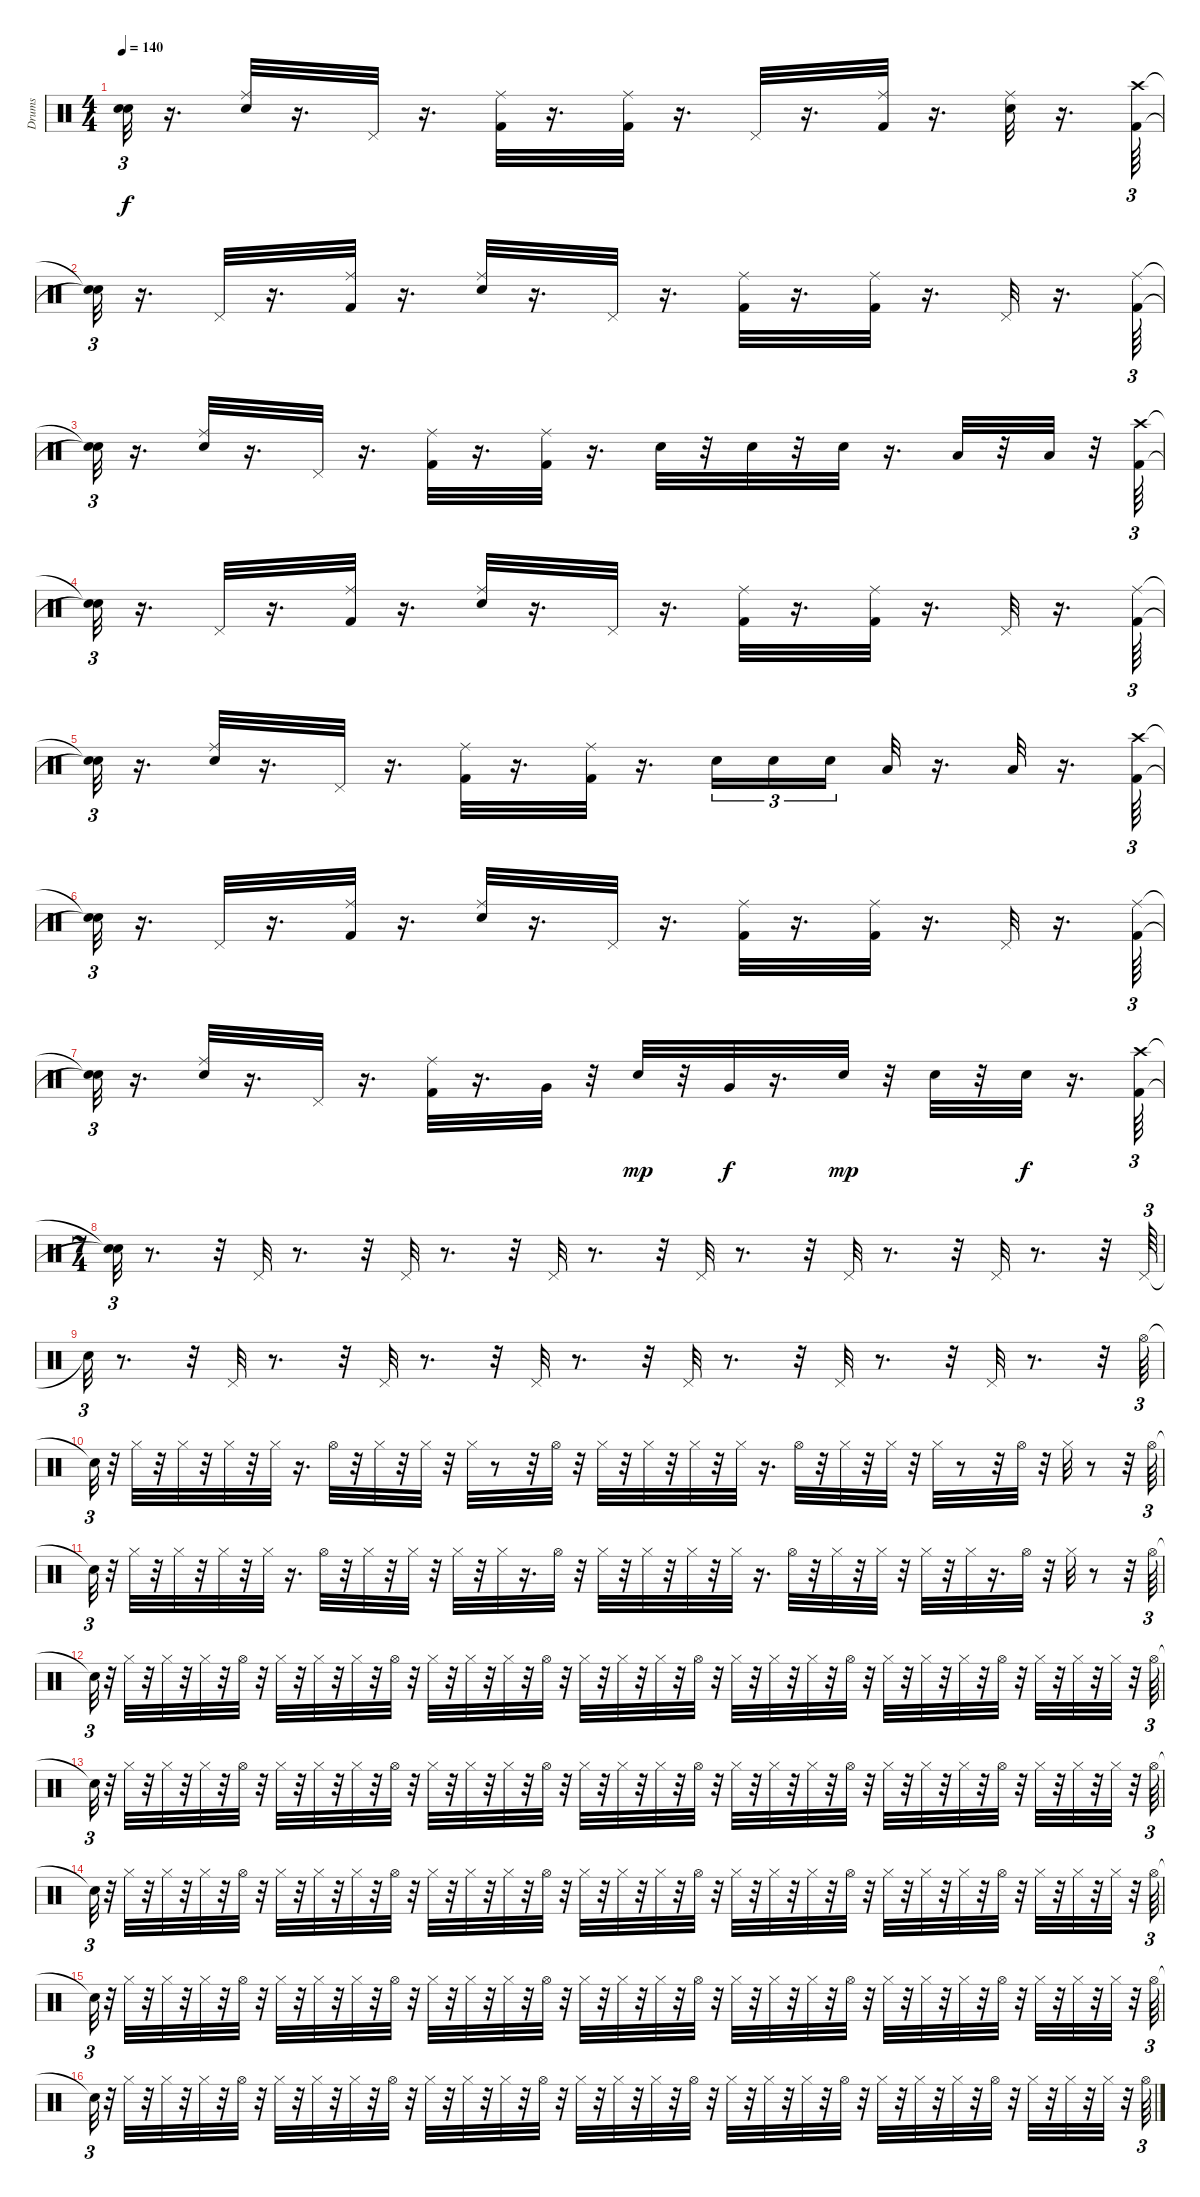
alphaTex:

\track ("Drums" "Drums") {instrument percussion}
\staff {score}
\articulation defaults
\ts (4 4)
\tempo 140
\clef neutral
\ks c
("Snare (hit)"{t} "Snare (hit)"{t}).32{tu (3 2) dy f} r.16{d} ("Ride (middle)" "Snare (hit) 2").32 r.16{d} "Pedal Hi-Hat (hit)".32 r.16{d} ("Ride (middle)" "Kick (hit) 2").32 r.16{d} ("Kick (hit) 2" "Ride (middle)").32 r.16{d} "Pedal Hi-Hat (hit)".32 r.16{d} ("Ride (middle)" "Kick (hit) 2").32 r.16{d} ("Ride (middle)" "Snare (hit) 2").32 r.16{d} ("Crash high (hit)" "Kick (hit) 2").64{tu (3 2)} |
("Snare (hit)"{t} "Snare (hit)"{t}).32{tu (3 2)} r.16{d} "Pedal Hi-Hat (hit)".32 r.16{d} ("Ride (middle)" "Kick (hit) 2").32 r.16{d} ("Ride (middle)" "Snare (hit) 2").32 r.16{d} "Pedal Hi-Hat (hit)".32 r.16{d} ("Ride (middle)" "Kick (hit) 2").32 r.16{d} ("Kick (hit) 2" "Ride (middle)").32 r.16{d} "Pedal Hi-Hat (hit)".32 r.16{d} ("Kick (hit) 2" "Ride (middle)").64{tu (3 2)} |
("Snare (hit)"{t} "Snare (hit)"{t}).32{tu (3 2)} r.16{d} ("Ride (middle)" "Snare (hit) 2").32 r.16{d} "Pedal Hi-Hat (hit)".32 r.16{d} ("Ride (middle)" "Kick (hit) 2").32 r.16{d} ("Ride (middle)" "Kick (hit) 2").32 r.16{d} "Snare (hit) 2".32 r.32 "Snare (hit) 2".32 r.32 "Snare (hit) 2".32 r.16{d} "Low Tom (hit)".32 r.32 "Low Tom (hit)".32 r.32 ("Crash high (hit)" "Kick (hit) 2").64{tu (3 2)} |
("Snare (hit)"{t} "Snare (hit)"{t}).32{tu (3 2)} r.16{d} "Pedal Hi-Hat (hit)".32 r.16{d} ("Kick (hit) 2" "Ride (middle)").32 r.16{d} ("Ride (middle)" "Snare (hit) 2").32 r.16{d} "Pedal Hi-Hat (hit)".32 r.16{d} ("Ride (middle)" "Kick (hit) 2").32 r.16{d} ("Ride (middle)" "Kick (hit) 2").32 r.16{d} "Pedal Hi-Hat (hit)".32 r.16{d} ("Ride (middle)" "Kick (hit) 2").64{tu (3 2)} |
("Snare (hit)"{t} "Snare (hit)"{t}).32{tu (3 2)} r.16{d} ("Ride (middle)" "Snare (hit) 2").32 r.16{d} "Pedal Hi-Hat (hit)".32 r.16{d} ("Ride (middle)" "Kick (hit) 2").32 r.16{d} ("Kick (hit) 2" "Ride (middle)").32 r.16{d} "Snare (hit) 2".16{tu (3 2)} "Snare (hit) 2".16{tu (3 2)} "Snare (hit) 2".16{tu (3 2) beam splitsecondary} "Low Tom (hit)".32 r.16{d} "Low Tom (hit)".32 r.16{d} ("Crash high (hit)" "Kick (hit) 2").64{tu (3 2)} |
("Snare (hit)"{t} "Snare (hit)"{t}).32{tu (3 2)} r.16{d} "Pedal Hi-Hat (hit)".32 r.16{d} ("Kick (hit) 2" "Ride (middle)").32 r.16{d} ("Ride (middle)" "Snare (hit) 2").32 r.16{d} "Pedal Hi-Hat (hit)".32 r.16{d} ("Ride (middle)" "Kick (hit) 2").32 r.16{d} ("Ride (middle)" "Kick (hit) 2").32 r.16{d} "Pedal Hi-Hat (hit)".32 r.16{d} ("Ride (middle)" "Kick (hit) 2").64{tu (3 2)} |
("Snare (hit)"{t} "Snare (hit)"{t}).32{tu (3 2)} r.16{d} ("Ride (middle)" "Snare (hit) 2").32 r.16{d} "Pedal Hi-Hat (hit)".32 r.16{d} ("Ride (middle)" "Kick (hit) 2").32 r.16{d} "Very Low Tom (hit)".32 r.32 "Snare (hit) 2".32{dy mp} r.32 "Very Low Tom (hit)".32{dy f} r.16{d} "Snare (hit) 2".32{dy mp} r.32 "Snare (hit) 2".32 r.32 "Snare (hit) 2".32{dy f} r.16{d} ("Crash high (hit)" "Kick (hit) 2").64{tu (3 2)} |
\ts (7 4)
("Snare (hit)"{t} "Snare (hit)"{t}).32{tu (3 2)} r.8{d} r.32 "Pedal Hi-Hat (hit)".32 r.8{d} r.32 "Pedal Hi-Hat (hit)".32 r.8{d} r.32 "Pedal Hi-Hat (hit)".32 r.8{d} r.32 "Pedal Hi-Hat (hit)".32 r.8{d} r.32 "Pedal Hi-Hat (hit)".32 r.8{d} r.32 "Pedal Hi-Hat (hit)".32 r.8{d} r.32 "Pedal Hi-Hat (hit)".64{tu (3 2)} |
"Snare (hit)"{t}.32{tu (3 2)} r.8{d} r.32 "Pedal Hi-Hat (hit)".32 r.8{d} r.32 "Pedal Hi-Hat (hit)".32 r.8{d} r.32 "Pedal Hi-Hat (hit)".32 r.8{d} r.32 "Pedal Hi-Hat (hit)".32 r.8{d} r.32 "Pedal Hi-Hat (hit)".32 r.8{d} r.32 "Pedal Hi-Hat (hit)".32 r.8{d} r.32 "Hi-Hat (open)".64{tu (3 2)} |
"Snare (hit)"{t}.32{tu (3 2)} r.32 "Hi-Hat (closed)".32 r.32 "Hi-Hat (closed)".32 r.32 "Hi-Hat (closed)".32 r.32 "Hi-Hat (closed)".32 r.16{d} "Hi-Hat (open)".32 r.32 "Hi-Hat (closed)".32 r.32 "Hi-Hat (closed)".32 r.32 "Hi-Hat (closed)".32 r.8 r.32 "Hi-Hat (open)".32 r.32 "Hi-Hat (closed)".32 r.32 "Hi-Hat (closed)".32 r.32 "Hi-Hat (closed)".32 r.32 "Hi-Hat (closed)".32 r.16{d} "Hi-Hat (open)".32 r.32 "Hi-Hat (closed)".32 r.32 "Hi-Hat (closed)".32 r.32 "Hi-Hat (closed)".32 r.8 r.32 "Hi-Hat (open)".32 r.32 "Hi-Hat (closed)".32 r.8 r.32 "Hi-Hat (open)".64{tu (3 2)} |
"Snare (hit)"{t}.32{tu (3 2)} r.32 "Hi-Hat (closed)".32 r.32 "Hi-Hat (closed)".32 r.32 "Hi-Hat (closed)".32 r.32 "Hi-Hat (closed)".32 r.16{d} "Hi-Hat (open)".32 r.32 "Hi-Hat (closed)".32 r.32 "Hi-Hat (closed)".32 r.32 "Hi-Hat (closed)".32 r.32 "Hi-Hat (closed)".32 r.16{d} "Hi-Hat (open)".32 r.32 "Hi-Hat (closed)".32 r.32 "Hi-Hat (closed)".32 r.32 "Hi-Hat (closed)".32 r.32 "Hi-Hat (closed)".32 r.16{d} "Hi-Hat (open)".32 r.32 "Hi-Hat (closed)".32 r.32 "Hi-Hat (closed)".32 r.32 "Hi-Hat (closed)".32 r.32 "Hi-Hat (closed)".32 r.16{d} "Hi-Hat (open)".32 r.32 "Hi-Hat (closed)".32 r.8 r.32 "Hi-Hat (open)".64{tu (3 2)} |
"Snare (hit)"{t}.32{tu (3 2)} r.32 "Hi-Hat (closed)".32 r.32 "Hi-Hat (closed)".32 r.32 "Hi-Hat (closed)".32 r.32 "Hi-Hat (open)".32 r.32 "Hi-Hat (closed)".32 r.32 "Hi-Hat (closed)".32 r.32 "Hi-Hat (closed)".32 r.32 "Hi-Hat (open)".32 r.32 "Hi-Hat (closed)".32 r.32 "Hi-Hat (closed)".32 r.32 "Hi-Hat (closed)".32 r.32 "Hi-Hat (open)".32 r.32 "Hi-Hat (closed)".32 r.32 "Hi-Hat (closed)".32 r.32 "Hi-Hat (closed)".32 r.32 "Hi-Hat (open)".32 r.32 "Hi-Hat (closed)".32 r.32 "Hi-Hat (closed)".32 r.32 "Hi-Hat (closed)".32 r.32 "Hi-Hat (open)".32 r.32 "Hi-Hat (closed)".32 r.32 "Hi-Hat (closed)".32 r.32 "Hi-Hat (closed)".32 r.32 "Hi-Hat (open)".32 r.32 "Hi-Hat (closed)".32 r.32 "Hi-Hat (closed)".32 r.32 "Hi-Hat (closed)".32 r.32 "Hi-Hat (open)".64{tu (3 2)} |
"Snare (hit)"{t}.32{tu (3 2)} r.32 "Hi-Hat (closed)".32 r.32 "Hi-Hat (closed)".32 r.32 "Hi-Hat (closed)".32 r.32 "Hi-Hat (open)".32 r.32 "Hi-Hat (closed)".32 r.32 "Hi-Hat (closed)".32 r.32 "Hi-Hat (closed)".32 r.32 "Hi-Hat (open)".32 r.32 "Hi-Hat (closed)".32 r.32 "Hi-Hat (closed)".32 r.32 "Hi-Hat (closed)".32 r.32 "Hi-Hat (open)".32 r.32 "Hi-Hat (closed)".32 r.32 "Hi-Hat (closed)".32 r.32 "Hi-Hat (closed)".32 r.32 "Hi-Hat (open)".32 r.32 "Hi-Hat (closed)".32 r.32 "Hi-Hat (closed)".32 r.32 "Hi-Hat (closed)".32 r.32 "Hi-Hat (open)".32 r.32 "Hi-Hat (closed)".32 r.32 "Hi-Hat (closed)".32 r.32 "Hi-Hat (closed)".32 r.32 "Hi-Hat (open)".32 r.32 "Hi-Hat (closed)".32 r.32 "Hi-Hat (closed)".32 r.32 "Hi-Hat (closed)".32 r.32 "Hi-Hat (open)".64{tu (3 2)} |
"Snare (hit)"{t}.32{tu (3 2)} r.32 "Hi-Hat (closed)".32 r.32 "Hi-Hat (closed)".32 r.32 "Hi-Hat (closed)".32 r.32 "Hi-Hat (open)".32 r.32 "Hi-Hat (closed)".32 r.32 "Hi-Hat (closed)".32 r.32 "Hi-Hat (closed)".32 r.32 "Hi-Hat (open)".32 r.32 "Hi-Hat (closed)".32 r.32 "Hi-Hat (closed)".32 r.32 "Hi-Hat (closed)".32 r.32 "Hi-Hat (open)".32 r.32 "Hi-Hat (closed)".32 r.32 "Hi-Hat (closed)".32 r.32 "Hi-Hat (closed)".32 r.32 "Hi-Hat (open)".32 r.32 "Hi-Hat (closed)".32 r.32 "Hi-Hat (closed)".32 r.32 "Hi-Hat (closed)".32 r.32 "Hi-Hat (open)".32 r.32 "Hi-Hat (closed)".32 r.32 "Hi-Hat (closed)".32 r.32 "Hi-Hat (closed)".32 r.32 "Hi-Hat (open)".32 r.32 "Hi-Hat (closed)".32 r.32 "Hi-Hat (closed)".32 r.32 "Hi-Hat (closed)".32 r.32 "Hi-Hat (open)".64{tu (3 2)} |
"Snare (hit)"{t}.32{tu (3 2)} r.32 "Hi-Hat (closed)".32 r.32 "Hi-Hat (closed)".32 r.32 "Hi-Hat (closed)".32 r.32 "Hi-Hat (open)".32 r.32 "Hi-Hat (closed)".32 r.32 "Hi-Hat (closed)".32 r.32 "Hi-Hat (closed)".32 r.32 "Hi-Hat (open)".32 r.32 "Hi-Hat (closed)".32 r.32 "Hi-Hat (closed)".32 r.32 "Hi-Hat (closed)".32 r.32 "Hi-Hat (open)".32 r.32 "Hi-Hat (closed)".32 r.32 "Hi-Hat (closed)".32 r.32 "Hi-Hat (closed)".32 r.32 "Hi-Hat (open)".32 r.32 "Hi-Hat (closed)".32 r.32 "Hi-Hat (closed)".32 r.32 "Hi-Hat (closed)".32 r.32 "Hi-Hat (open)".32 r.32 "Hi-Hat (closed)".32 r.32 "Hi-Hat (closed)".32 r.32 "Hi-Hat (closed)".32 r.32 "Hi-Hat (open)".32 r.32 "Hi-Hat (closed)".32 r.32 "Hi-Hat (closed)".32 r.32 "Hi-Hat (closed)".32 r.32 "Hi-Hat (open)".64{tu (3 2)} |
"Snare (hit)"{t}.32{tu (3 2)} r.32 "Hi-Hat (closed)".32 r.32 "Hi-Hat (closed)".32 r.32 "Hi-Hat (closed)".32 r.32 "Hi-Hat (open)".32 r.32 "Hi-Hat (closed)".32 r.32 "Hi-Hat (closed)".32 r.32 "Hi-Hat (closed)".32 r.32 "Hi-Hat (open)".32 r.32 "Hi-Hat (closed)".32 r.32 "Hi-Hat (closed)".32 r.32 "Hi-Hat (closed)".32 r.32 "Hi-Hat (open)".32 r.32 "Hi-Hat (closed)".32 r.32 "Hi-Hat (closed)".32 r.32 "Hi-Hat (closed)".32 r.32 "Hi-Hat (open)".32 r.32 "Hi-Hat (closed)".32 r.32 "Hi-Hat (closed)".32 r.32 "Hi-Hat (closed)".32 r.32 "Hi-Hat (open)".32 r.32 "Hi-Hat (closed)".32 r.32 "Hi-Hat (closed)".32 r.32 "Hi-Hat (closed)".32 r.32 "Hi-Hat (open)".32 r.32 "Hi-Hat (closed)".32 r.32 "Hi-Hat (closed)".32 r.32 "Hi-Hat (closed)".32 r.32 "Hi-Hat (open)".64{tu (3 2)}
